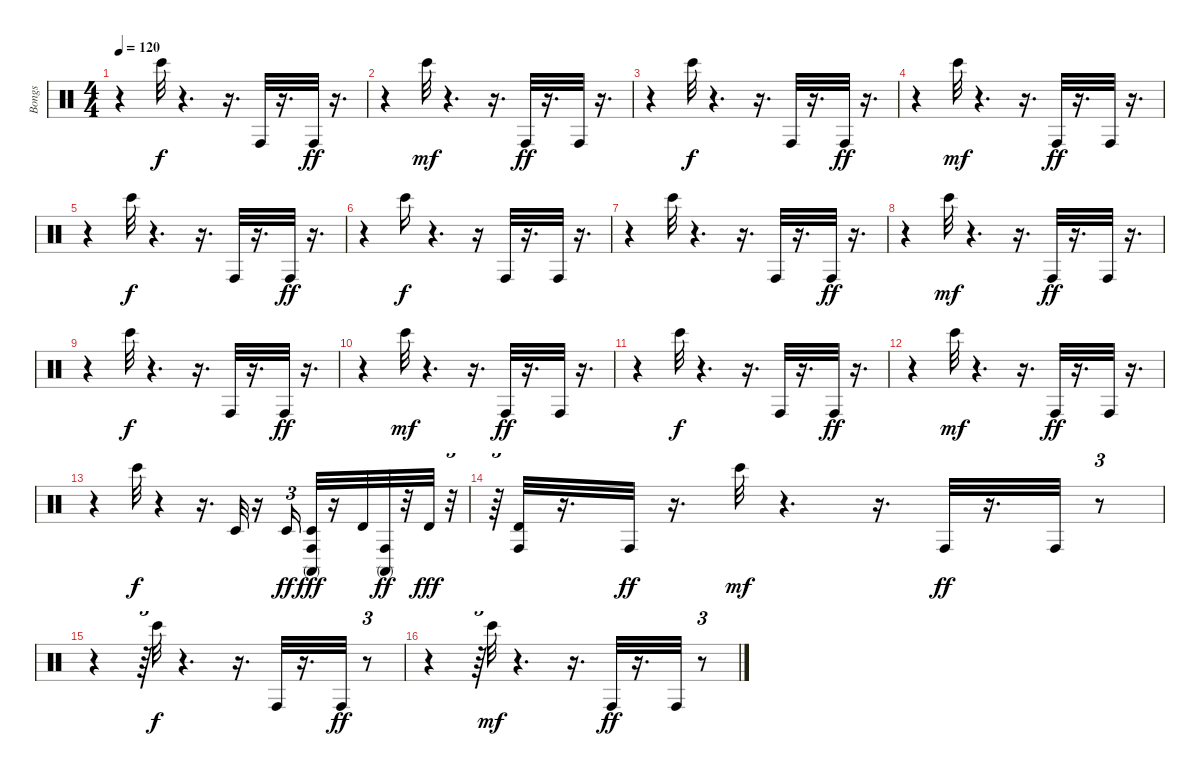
\track ("Bongs" "Bongs") {instrument percussion}
\staff {score}
\articulation defaults
\ts (4 4)
\tempo 120
\clef neutral
\ks c
r.4{dy ff} "Bongo High (hit)".32{dy f} r.4{d} r.16{d} "Conga high (hit)".32 r.16{d} "Conga high (hit)".32{dy ff} r.16{d} |
r.4 "Bongo High (hit)".32{dy mf} r.4{d} r.16{d} "Conga high (hit)".32{dy ff} r.16{d} "Conga high (hit)".32 r.16{d} |
r.4 "Bongo High (hit)".32{dy f} r.4{d} r.16{d} "Conga high (hit)".32 r.16{d} "Conga high (hit)".32{dy ff} r.16{d} |
r.4 "Bongo High (hit)".32{dy mf} r.4{d} r.16{d} "Conga high (hit)".32{dy ff} r.16{d} "Conga high (hit)".32 r.16{d} |
r.4 "Bongo High (hit)".32{dy f} r.4{d} r.16{d} "Conga high (hit)".32 r.16{d} "Conga high (hit)".32{dy ff} r.16{d} |
r.4 "Bongo High (hit)".16{dy f} r.4{d} r.16 "Conga high (hit)".32 r.16{d} "Conga high (hit)".32 r.16{d} |
r.4 "Bongo High (hit)".32 r.4{d} r.16{d} "Conga high (hit)".32 r.16{d} "Conga high (hit)".32{dy ff} r.16{d} |
r.4 "Bongo High (hit)".32{dy mf} r.4{d} r.16{d} "Conga high (hit)".32{dy ff} r.16{d} "Conga high (hit)".32 r.16{d} |
r.4 "Bongo High (hit)".32{dy f} r.4{d} r.16{d} "Conga high (hit)".32 r.16{d} "Conga high (hit)".32{dy ff} r.16{d} |
r.4 "Bongo High (hit)".32{dy mf} r.4{d} r.16{d} "Conga high (hit)".32{dy ff} r.16{d} "Conga high (hit)".32 r.16{d} |
r.4 "Bongo High (hit)".32{dy f} r.4{d} r.16{d} "Conga high (hit)".32 r.16{d} "Conga high (hit)".32{dy ff} r.16{d} |
r.4 "Bongo High (hit)".32{dy mf} r.4{d} r.16{d} "Conga high (hit)".32{dy ff} r.16{d} "Conga high (hit)".32 r.16{d} |
r.4 "Bongo High (hit)".32{dy f} r.4 r.16{d} "Timbale low (hit)".32 r.16 "Timbale low (hit)".16{tu (3 2) dy ff} ("Conga high (mute)" "Conga high (hit)" "Timbale low (hit)").32{dy fff} r.16 "Timbale high (hit)".32 ("Conga high (mute)" "Conga high (hit)").32{dy ff} r.32 "Timbale high (hit)".32{dy fff} r.32{tu (3 2)} |
r.64{tu (3 2)} ("Conga high (hit)" "Timbale high (hit)").32 r.16{d} "Conga high (hit)".32{dy ff} r.16{d} "Bongo High (hit)".32{dy mf} r.4{d} r.16{d} "Conga high (hit)".32{dy ff} r.16{d} "Conga high (hit)".32 r.8{tu (3 2)} |
r.4 r.64{tu (3 2)} "Bongo High (hit)".32{dy f} r.4{d} r.16{d} "Conga high (hit)".32 r.16{d} "Conga high (hit)".32{dy ff} r.8{tu (3 2)} |
r.4 r.64{tu (3 2)} "Bongo High (hit)".32{dy mf} r.4{d} r.16{d} "Conga high (hit)".32{dy ff} r.16{d} "Conga high (hit)".32 r.8{tu (3 2)}
